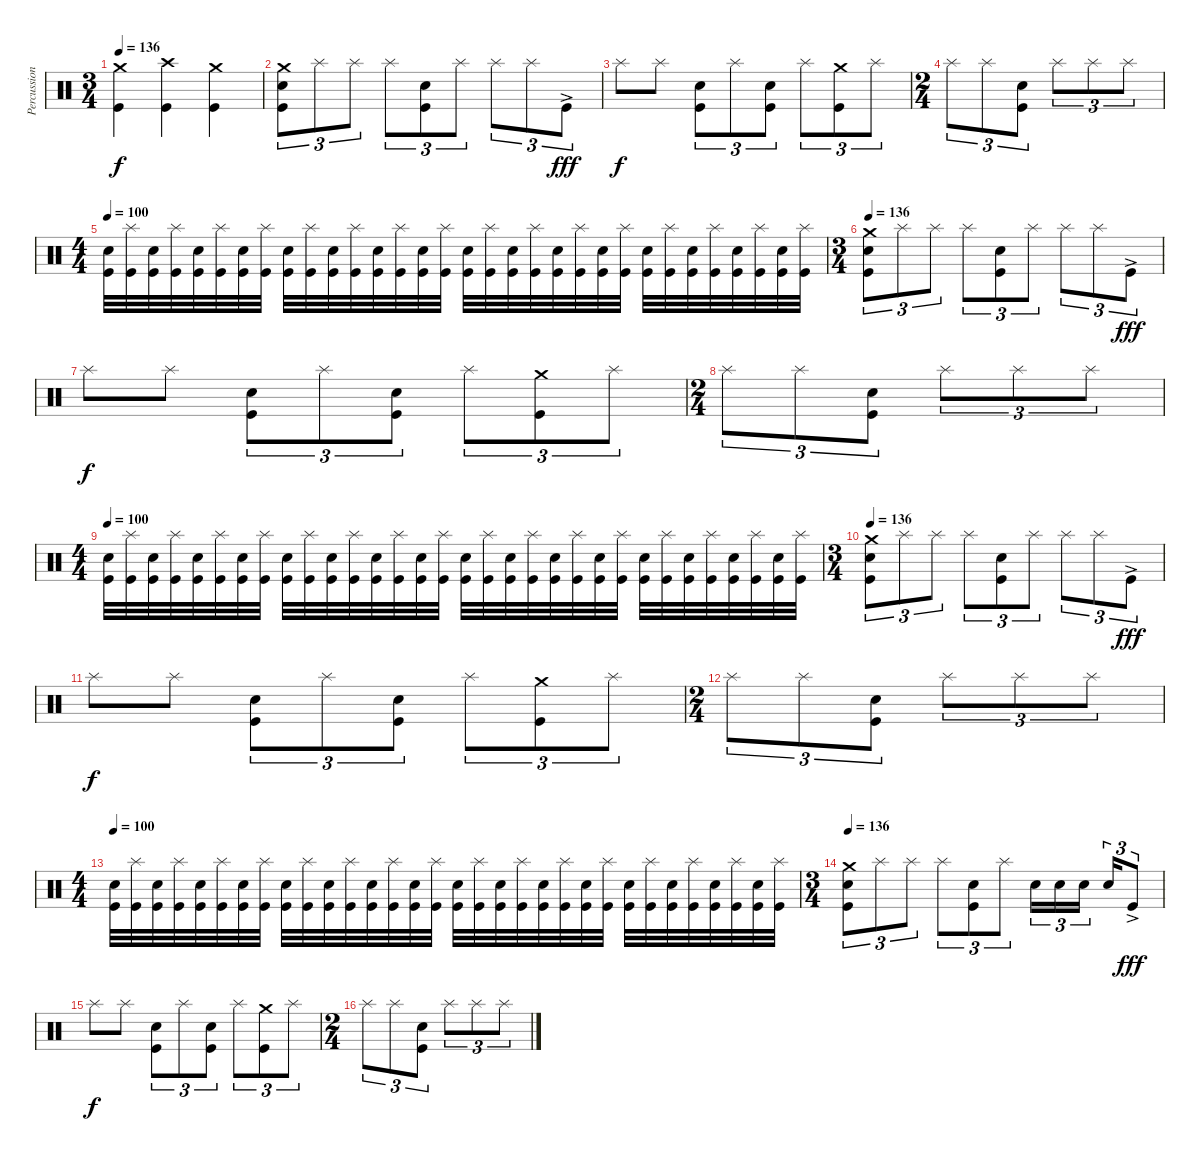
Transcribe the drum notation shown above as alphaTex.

\track ("Percussion" "Percussion") {instrument percussion}
\staff {score}
\articulation defaults
\ts (3 4)
\tempo 136
\clef neutral
\ks c
("Crash medium (hit)"{t} "Kick (hit)"{t}).4{dy f} ("Crash high (hit)" "Kick (hit)").4 ("Crash medium (hit)" "Kick (hit)").4 |
("Crash medium (hit)" "Electric Snare (hit)" "Kick (hit)").8{tu (3 2)} "Splash (hit)".8{tu (3 2)} "Splash (hit)".8{tu (3 2)} "Splash (hit)".8{tu (3 2)} ("Electric Snare (hit)" "Kick (hit)").8{tu (3 2)} "Splash (hit)".8{tu (3 2)} "Splash (hit)".8{tu (3 2)} "Splash (hit)".8{tu (3 2)} "Kick (hit)"{ac}.8{tu (3 2) dy fff} |
"Splash (hit)".8{dy f} "Splash (hit)".8 ("Electric Snare (hit)" "Kick (hit)").8{tu (3 2)} "Splash (hit)".8{tu (3 2)} ("Electric Snare (hit)" "Kick (hit)").8{tu (3 2)} "Splash (hit)".8{tu (3 2)} ("Crash medium (hit)" "Kick (hit)").8{tu (3 2)} "Splash (hit)".8{tu (3 2)} |
\ts (2 4)
"Splash (hit)".8{tu (3 2)} "Splash (hit)".8{tu (3 2)} ("Electric Snare (hit)" "Kick (hit)").8{tu (3 2)} "Splash (hit)".8{tu (3 2)} "Splash (hit)".8{tu (3 2)} "Splash (hit)".8{tu (3 2)} |
\ts (4 4)
\tempo 100
("Electric Snare (hit)" "Kick (hit)").32 ("Splash (hit)" "Kick (hit)").32 ("Electric Snare (hit)" "Kick (hit)").32 ("Splash (hit)" "Kick (hit)").32 ("Electric Snare (hit)" "Kick (hit)").32 ("Splash (hit)" "Kick (hit)").32 ("Electric Snare (hit)" "Kick (hit)").32 ("Splash (hit)" "Kick (hit)").32 ("Electric Snare (hit)" "Kick (hit)").32 ("Splash (hit)" "Kick (hit)").32 ("Electric Snare (hit)" "Kick (hit)").32 ("Splash (hit)" "Kick (hit)").32 ("Electric Snare (hit)" "Kick (hit)").32 ("Splash (hit)" "Kick (hit)").32 ("Electric Snare (hit)" "Kick (hit)").32 ("Splash (hit)" "Kick (hit)").32 ("Electric Snare (hit)" "Kick (hit)").32 ("Splash (hit)" "Kick (hit)").32 ("Electric Snare (hit)" "Kick (hit)").32 ("Splash (hit)" "Kick (hit)").32 ("Electric Snare (hit)" "Kick (hit)").32 ("Splash (hit)" "Kick (hit)").32 ("Electric Snare (hit)" "Kick (hit)").32 ("Splash (hit)" "Kick (hit)").32 ("Electric Snare (hit)" "Kick (hit)").32 ("Splash (hit)" "Kick (hit)").32 ("Electric Snare (hit)" "Kick (hit)").32 ("Splash (hit)" "Kick (hit)").32 ("Electric Snare (hit)" "Kick (hit)").32 ("Splash (hit)" "Kick (hit)").32 ("Electric Snare (hit)" "Kick (hit)").32 ("Splash (hit)" "Kick (hit)").32 |
\ts (3 4)
\tempo 136
("Crash medium (hit)" "Electric Snare (hit)" "Kick (hit)").8{tu (3 2)} "Splash (hit)".8{tu (3 2)} "Splash (hit)".8{tu (3 2)} "Splash (hit)".8{tu (3 2)} ("Electric Snare (hit)" "Kick (hit)").8{tu (3 2)} "Splash (hit)".8{tu (3 2)} "Splash (hit)".8{tu (3 2)} "Splash (hit)".8{tu (3 2)} "Kick (hit)"{ac}.8{tu (3 2) dy fff} |
"Splash (hit)".8{dy f} "Splash (hit)".8 ("Electric Snare (hit)" "Kick (hit)").8{tu (3 2)} "Splash (hit)".8{tu (3 2)} ("Electric Snare (hit)" "Kick (hit)").8{tu (3 2)} "Splash (hit)".8{tu (3 2)} ("Crash medium (hit)" "Kick (hit)").8{tu (3 2)} "Splash (hit)".8{tu (3 2)} |
\ts (2 4)
"Splash (hit)".8{tu (3 2)} "Splash (hit)".8{tu (3 2)} ("Electric Snare (hit)" "Kick (hit)").8{tu (3 2)} "Splash (hit)".8{tu (3 2)} "Splash (hit)".8{tu (3 2)} "Splash (hit)".8{tu (3 2)} |
\ts (4 4)
\tempo 100
("Electric Snare (hit)" "Kick (hit)").32 ("Splash (hit)" "Kick (hit)").32 ("Electric Snare (hit)" "Kick (hit)").32 ("Splash (hit)" "Kick (hit)").32 ("Electric Snare (hit)" "Kick (hit)").32 ("Splash (hit)" "Kick (hit)").32 ("Electric Snare (hit)" "Kick (hit)").32 ("Splash (hit)" "Kick (hit)").32 ("Electric Snare (hit)" "Kick (hit)").32 ("Splash (hit)" "Kick (hit)").32 ("Electric Snare (hit)" "Kick (hit)").32 ("Splash (hit)" "Kick (hit)").32 ("Electric Snare (hit)" "Kick (hit)").32 ("Splash (hit)" "Kick (hit)").32 ("Electric Snare (hit)" "Kick (hit)").32 ("Splash (hit)" "Kick (hit)").32 ("Electric Snare (hit)" "Kick (hit)").32 ("Splash (hit)" "Kick (hit)").32 ("Electric Snare (hit)" "Kick (hit)").32 ("Splash (hit)" "Kick (hit)").32 ("Electric Snare (hit)" "Kick (hit)").32 ("Splash (hit)" "Kick (hit)").32 ("Electric Snare (hit)" "Kick (hit)").32 ("Splash (hit)" "Kick (hit)").32 ("Electric Snare (hit)" "Kick (hit)").32 ("Splash (hit)" "Kick (hit)").32 ("Electric Snare (hit)" "Kick (hit)").32 ("Splash (hit)" "Kick (hit)").32 ("Electric Snare (hit)" "Kick (hit)").32 ("Splash (hit)" "Kick (hit)").32 ("Electric Snare (hit)" "Kick (hit)").32 ("Splash (hit)" "Kick (hit)").32 |
\ts (3 4)
\tempo 136
("Crash medium (hit)" "Electric Snare (hit)" "Kick (hit)").8{tu (3 2)} "Splash (hit)".8{tu (3 2)} "Splash (hit)".8{tu (3 2)} "Splash (hit)".8{tu (3 2)} ("Electric Snare (hit)" "Kick (hit)").8{tu (3 2)} "Splash (hit)".8{tu (3 2)} "Splash (hit)".8{tu (3 2)} "Splash (hit)".8{tu (3 2)} "Kick (hit)"{ac}.8{tu (3 2) dy fff} |
"Splash (hit)".8{dy f} "Splash (hit)".8 ("Electric Snare (hit)" "Kick (hit)").8{tu (3 2)} "Splash (hit)".8{tu (3 2)} ("Electric Snare (hit)" "Kick (hit)").8{tu (3 2)} "Splash (hit)".8{tu (3 2)} ("Crash medium (hit)" "Kick (hit)").8{tu (3 2)} "Splash (hit)".8{tu (3 2)} |
\ts (2 4)
"Splash (hit)".8{tu (3 2)} "Splash (hit)".8{tu (3 2)} ("Electric Snare (hit)" "Kick (hit)").8{tu (3 2)} "Splash (hit)".8{tu (3 2)} "Splash (hit)".8{tu (3 2)} "Splash (hit)".8{tu (3 2)} |
\ts (4 4)
\tempo 100
("Electric Snare (hit)" "Kick (hit)").32 ("Splash (hit)" "Kick (hit)").32 ("Electric Snare (hit)" "Kick (hit)").32 ("Splash (hit)" "Kick (hit)").32 ("Electric Snare (hit)" "Kick (hit)").32 ("Splash (hit)" "Kick (hit)").32 ("Electric Snare (hit)" "Kick (hit)").32 ("Splash (hit)" "Kick (hit)").32 ("Electric Snare (hit)" "Kick (hit)").32 ("Splash (hit)" "Kick (hit)").32 ("Electric Snare (hit)" "Kick (hit)").32 ("Splash (hit)" "Kick (hit)").32 ("Electric Snare (hit)" "Kick (hit)").32 ("Splash (hit)" "Kick (hit)").32 ("Electric Snare (hit)" "Kick (hit)").32 ("Splash (hit)" "Kick (hit)").32 ("Electric Snare (hit)" "Kick (hit)").32 ("Splash (hit)" "Kick (hit)").32 ("Electric Snare (hit)" "Kick (hit)").32 ("Splash (hit)" "Kick (hit)").32 ("Electric Snare (hit)" "Kick (hit)").32 ("Splash (hit)" "Kick (hit)").32 ("Electric Snare (hit)" "Kick (hit)").32 ("Splash (hit)" "Kick (hit)").32 ("Electric Snare (hit)" "Kick (hit)").32 ("Splash (hit)" "Kick (hit)").32 ("Electric Snare (hit)" "Kick (hit)").32 ("Splash (hit)" "Kick (hit)").32 ("Electric Snare (hit)" "Kick (hit)").32 ("Splash (hit)" "Kick (hit)").32 ("Electric Snare (hit)" "Kick (hit)").32 ("Splash (hit)" "Kick (hit)").32 |
\ts (3 4)
\tempo 136
("Crash medium (hit)" "Electric Snare (hit)" "Kick (hit)").8{tu (3 2)} "Splash (hit)".8{tu (3 2)} "Splash (hit)".8{tu (3 2)} "Splash (hit)".8{tu (3 2)} ("Electric Snare (hit)" "Kick (hit)").8{tu (3 2)} "Splash (hit)".8{tu (3 2)} "Electric Snare (hit)".16{tu (3 2)} "Electric Snare (hit)".16{tu (3 2)} "Electric Snare (hit)".16{tu (3 2)} "Electric Snare (hit)".16{tu (3 2)} "Kick (hit)"{ac}.8{tu (3 2) dy fff} |
"Splash (hit)".8{dy f} "Splash (hit)".8 ("Electric Snare (hit)" "Kick (hit)").8{tu (3 2)} "Splash (hit)".8{tu (3 2)} ("Electric Snare (hit)" "Kick (hit)").8{tu (3 2)} "Splash (hit)".8{tu (3 2)} ("Crash medium (hit)" "Kick (hit)").8{tu (3 2)} "Splash (hit)".8{tu (3 2)} |
\ts (2 4)
"Splash (hit)".8{tu (3 2)} "Splash (hit)".8{tu (3 2)} ("Electric Snare (hit)" "Kick (hit)").8{tu (3 2)} "Splash (hit)".8{tu (3 2)} "Splash (hit)".8{tu (3 2)} "Splash (hit)".8{tu (3 2)}
